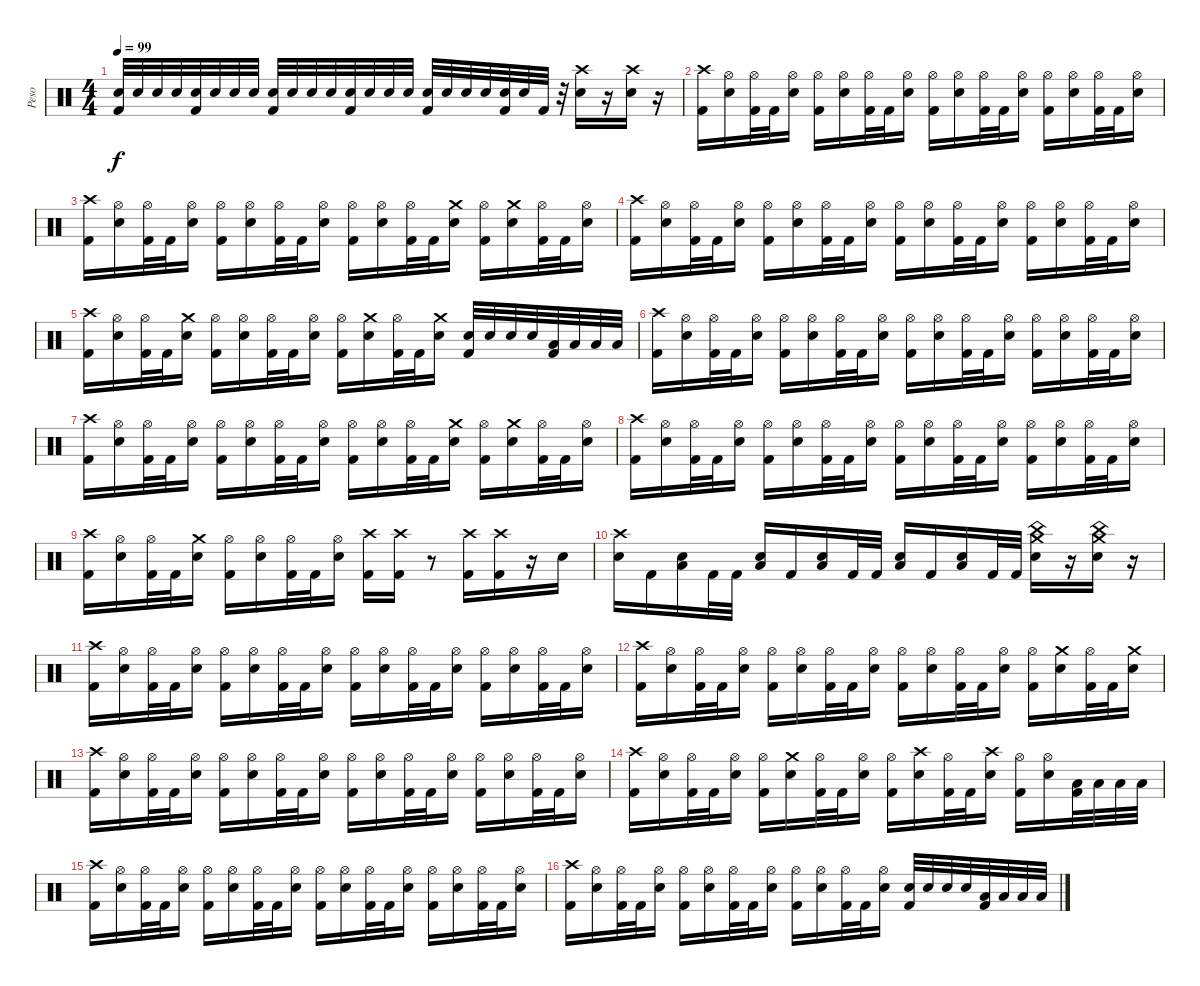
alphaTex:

\track ("Peso" "Peso") {instrument percussion}
\staff {score}
\articulation defaults
\ts (4 4)
\tempo 99
\clef neutral
\ks c
("Electric Snare (hit)" "Kick (hit) 2").32{dy f volume 10} "Electric Snare (hit)".32 "Electric Snare (hit)".32 "Electric Snare (hit)".32 ("Electric Snare (hit)" "Kick (hit) 2").32 "Electric Snare (hit)".32 "Electric Snare (hit)".32 "Electric Snare (hit)".32 ("Electric Snare (hit)" "Kick (hit) 2").32{volume 12} "Electric Snare (hit)".32 "Electric Snare (hit)".32 "Electric Snare (hit)".32 ("Electric Snare (hit)" "Kick (hit) 2").32 "Electric Snare (hit)".32 "Electric Snare (hit)".32 "Electric Snare (hit)".32 ("Electric Snare (hit)" "Kick (hit) 2").32{volume 14} "Electric Snare (hit)".32 "Electric Snare (hit)".32 "Electric Snare (hit)".32 ("Electric Snare (hit)" "Kick (hit) 2").32{volume 15} "Electric Snare (hit)".32 "Kick (hit) 2".32 r.32 ("Crash high (hit)" "Electric Snare (hit)").16 r.16 ("Crash high (hit)" "Electric Snare (hit)").16 r.16 |
("Crash high (hit)" "Kick (hit) 2").16 ("Hi-Hat (open)" "Electric Snare (hit)").16 ("Hi-Hat (open)" "Kick (hit) 2").32 "Kick (hit) 2".32 ("Hi-Hat (open)" "Electric Snare (hit)").16 ("Hi-Hat (open)" "Kick (hit) 2").16 ("Hi-Hat (open)" "Electric Snare (hit)").16 ("Hi-Hat (open)" "Kick (hit) 2").32 "Kick (hit) 2".32 ("Hi-Hat (open)" "Electric Snare (hit)").16 ("Hi-Hat (open)" "Kick (hit) 2").16 ("Hi-Hat (open)" "Electric Snare (hit)").16 ("Hi-Hat (open)" "Kick (hit) 2").32 "Kick (hit) 2".32 ("Hi-Hat (open)" "Electric Snare (hit)").16 ("Hi-Hat (open)" "Kick (hit) 2").16 ("Hi-Hat (open)" "Electric Snare (hit)").16 ("Hi-Hat (open)" "Kick (hit) 2").32 "Kick (hit) 2".32 ("Hi-Hat (open)" "Electric Snare (hit)").16 |
("Crash high (hit)" "Kick (hit) 2").16 ("Hi-Hat (open)" "Electric Snare (hit)").16 ("Hi-Hat (open)" "Kick (hit) 2").32 "Kick (hit) 2".32 ("Hi-Hat (open)" "Electric Snare (hit)").16 ("Hi-Hat (open)" "Kick (hit) 2").16 ("Hi-Hat (open)" "Electric Snare (hit)").16 ("Hi-Hat (open)" "Kick (hit) 2").32 "Kick (hit) 2".32 ("Hi-Hat (open)" "Electric Snare (hit)").16 ("Hi-Hat (open)" "Kick (hit) 2").16 ("Hi-Hat (open)" "Electric Snare (hit)").16 ("Hi-Hat (open)" "Kick (hit) 2").32 "Kick (hit) 2".32 ("Crash medium (hit)" "Electric Snare (hit)").16 ("Hi-Hat (open)" "Kick (hit) 2").16 ("Crash medium (hit)" "Electric Snare (hit)").16 ("Hi-Hat (open)" "Kick (hit) 2").32 "Kick (hit) 2".32 ("Hi-Hat (open)" "Electric Snare (hit)").16 |
("Crash high (hit)" "Kick (hit) 2").16 ("Hi-Hat (open)" "Electric Snare (hit)").16 ("Hi-Hat (open)" "Kick (hit) 2").32 "Kick (hit) 2".32 ("Hi-Hat (open)" "Electric Snare (hit)").16 ("Hi-Hat (open)" "Kick (hit) 2").16 ("Hi-Hat (open)" "Electric Snare (hit)").16 ("Hi-Hat (open)" "Kick (hit) 2").32 "Kick (hit) 2".32 ("Hi-Hat (open)" "Electric Snare (hit)").16 ("Hi-Hat (open)" "Kick (hit) 2").16 ("Hi-Hat (open)" "Electric Snare (hit)").16 ("Hi-Hat (open)" "Kick (hit) 2").32 "Kick (hit) 2".32 ("Hi-Hat (open)" "Electric Snare (hit)").16 ("Hi-Hat (open)" "Kick (hit) 2").16 ("Hi-Hat (open)" "Electric Snare (hit)").16 ("Hi-Hat (open)" "Kick (hit) 2").32 "Kick (hit) 2".32 ("Hi-Hat (open)" "Electric Snare (hit)").16 |
("Crash high (hit)" "Kick (hit) 2").16 ("Hi-Hat (open)" "Electric Snare (hit)").16 ("Hi-Hat (open)" "Kick (hit) 2").32 "Kick (hit) 2".32 ("Crash medium (hit)" "Electric Snare (hit)").16 ("Hi-Hat (open)" "Kick (hit) 2").16 ("Hi-Hat (open)" "Electric Snare (hit)").16 ("Hi-Hat (open)" "Kick (hit) 2").32 "Kick (hit) 2".32 ("Hi-Hat (open)" "Electric Snare (hit)").16 ("Hi-Hat (open)" "Kick (hit) 2").16 ("Crash medium (hit)" "Electric Snare (hit)").16 ("Hi-Hat (open)" "Kick (hit) 2").32 "Kick (hit) 2".32 ("Crash medium (hit)" "Electric Snare (hit)").16 ("Electric Snare (hit)" "Kick (hit) 2").32 "Electric Snare (hit)".32 "Electric Snare (hit)".32 "Electric Snare (hit)".32 ("Low Tom (hit)" "Kick (hit) 2").32 "Low Tom (hit)".32 "Low Tom (hit)".32 "Low Tom (hit)".32 |
("Crash high (hit)" "Kick (hit) 2").16 ("Hi-Hat (open)" "Electric Snare (hit)").16 ("Hi-Hat (open)" "Kick (hit) 2").32 "Kick (hit) 2".32 ("Hi-Hat (open)" "Electric Snare (hit)").16 ("Hi-Hat (open)" "Kick (hit) 2").16 ("Hi-Hat (open)" "Electric Snare (hit)").16 ("Hi-Hat (open)" "Kick (hit) 2").32 "Kick (hit) 2".32 ("Hi-Hat (open)" "Electric Snare (hit)").16 ("Hi-Hat (open)" "Kick (hit) 2").16 ("Hi-Hat (open)" "Electric Snare (hit)").16 ("Hi-Hat (open)" "Kick (hit) 2").32 "Kick (hit) 2".32 ("Hi-Hat (open)" "Electric Snare (hit)").16 ("Hi-Hat (open)" "Kick (hit) 2").16 ("Hi-Hat (open)" "Electric Snare (hit)").16 ("Hi-Hat (open)" "Kick (hit) 2").32 "Kick (hit) 2".32 ("Hi-Hat (open)" "Electric Snare (hit)").16 |
("Crash high (hit)" "Kick (hit) 2").16 ("Hi-Hat (open)" "Electric Snare (hit)").16 ("Hi-Hat (open)" "Kick (hit) 2").32 "Kick (hit) 2".32 ("Hi-Hat (open)" "Electric Snare (hit)").16 ("Hi-Hat (open)" "Kick (hit) 2").16 ("Hi-Hat (open)" "Electric Snare (hit)").16 ("Hi-Hat (open)" "Kick (hit) 2").32 "Kick (hit) 2".32 ("Hi-Hat (open)" "Electric Snare (hit)").16 ("Hi-Hat (open)" "Kick (hit) 2").16 ("Hi-Hat (open)" "Electric Snare (hit)").16 ("Hi-Hat (open)" "Kick (hit) 2").32 "Kick (hit) 2".32 ("Crash medium (hit)" "Electric Snare (hit)").16 ("Hi-Hat (open)" "Kick (hit) 2").16 ("Crash medium (hit)" "Electric Snare (hit)").16 ("Hi-Hat (open)" "Kick (hit) 2").32 "Kick (hit) 2".32 ("Hi-Hat (open)" "Electric Snare (hit)").16 |
("Crash high (hit)" "Kick (hit) 2").16 ("Hi-Hat (open)" "Electric Snare (hit)").16 ("Hi-Hat (open)" "Kick (hit) 2").32 "Kick (hit) 2".32 ("Hi-Hat (open)" "Electric Snare (hit)").16 ("Hi-Hat (open)" "Kick (hit) 2").16 ("Hi-Hat (open)" "Electric Snare (hit)").16 ("Hi-Hat (open)" "Kick (hit) 2").32 "Kick (hit) 2".32 ("Hi-Hat (open)" "Electric Snare (hit)").16 ("Hi-Hat (open)" "Kick (hit) 2").16 ("Hi-Hat (open)" "Electric Snare (hit)").16 ("Hi-Hat (open)" "Kick (hit) 2").32 "Kick (hit) 2".32 ("Hi-Hat (open)" "Electric Snare (hit)").16 ("Hi-Hat (open)" "Kick (hit) 2").16 ("Hi-Hat (open)" "Electric Snare (hit)").16 ("Hi-Hat (open)" "Kick (hit) 2").32 "Kick (hit) 2".32 ("Hi-Hat (open)" "Electric Snare (hit)").16 |
("Crash high (hit)" "Kick (hit) 2").16 ("Hi-Hat (open)" "Electric Snare (hit)").16 ("Hi-Hat (open)" "Kick (hit) 2").32 "Kick (hit) 2".32 ("Crash medium (hit)" "Electric Snare (hit)").16 ("Hi-Hat (open)" "Kick (hit) 2").16 ("Hi-Hat (open)" "Electric Snare (hit)").16 ("Hi-Hat (open)" "Kick (hit) 2").32 "Kick (hit) 2".32 ("Hi-Hat (open)" "Electric Snare (hit)").16 ("Crash high (hit)" "Kick (hit) 2").16 ("Crash high (hit)" "Kick (hit) 2").16 r.8 ("Crash high (hit)" "Kick (hit) 2").16 ("Crash high (hit)" "Kick (hit) 2").16 r.16 "Electric Snare (hit)".16 |
("Crash high (hit)" "Electric Snare (hit)").16 "Kick (hit) 2".16 ("Low Floor Tom (hit)" "Electric Snare (hit)").16 "Kick (hit) 2".32 "Kick (hit) 2".32 ("Low Floor Tom (hit)" "Electric Snare (hit)").16 "Kick (hit) 2".16 ("Low Floor Tom (hit)" "Electric Snare (hit)").16 "Kick (hit) 2".32 "Kick (hit) 2".32 ("Low Floor Tom (hit)" "Electric Snare (hit)").16 "Kick (hit) 2".16 ("Low Floor Tom (hit)" "Electric Snare (hit)").16 "Kick (hit) 2".32 "Kick (hit) 2".32 ("Crash medium (hit)" "China (hit)" "Electric Snare (hit)").16 r.16 ("Crash medium (hit)" "China (hit)" "Electric Snare (hit)").16 r.16 |
("Crash high (hit)" "Kick (hit) 2").16 ("Hi-Hat (open)" "Electric Snare (hit)").16 ("Hi-Hat (open)" "Kick (hit) 2").32 "Kick (hit) 2".32 ("Hi-Hat (open)" "Electric Snare (hit)").16 ("Hi-Hat (open)" "Kick (hit) 2").16 ("Hi-Hat (open)" "Electric Snare (hit)").16 ("Hi-Hat (open)" "Kick (hit) 2").32 "Kick (hit) 2".32 ("Hi-Hat (open)" "Electric Snare (hit)").16 ("Hi-Hat (open)" "Kick (hit) 2").16 ("Hi-Hat (open)" "Electric Snare (hit)").16 ("Hi-Hat (open)" "Kick (hit) 2").32 "Kick (hit) 2".32 ("Hi-Hat (open)" "Electric Snare (hit)").16 ("Hi-Hat (open)" "Kick (hit) 2").16 ("Hi-Hat (open)" "Electric Snare (hit)").16 ("Hi-Hat (open)" "Kick (hit) 2").32 "Kick (hit) 2".32 ("Hi-Hat (open)" "Electric Snare (hit)").16 |
("Crash high (hit)" "Kick (hit) 2").16 ("Hi-Hat (open)" "Electric Snare (hit)").16 ("Hi-Hat (open)" "Kick (hit) 2").32 "Kick (hit) 2".32 ("Hi-Hat (open)" "Electric Snare (hit)").16 ("Hi-Hat (open)" "Kick (hit) 2").16 ("Hi-Hat (open)" "Electric Snare (hit)").16 ("Hi-Hat (open)" "Kick (hit) 2").32 "Kick (hit) 2".32 ("Hi-Hat (open)" "Electric Snare (hit)").16 ("Hi-Hat (open)" "Kick (hit) 2").16 ("Hi-Hat (open)" "Electric Snare (hit)").16 ("Hi-Hat (open)" "Kick (hit) 2").32 "Kick (hit) 2".32 ("Hi-Hat (open)" "Electric Snare (hit)").16 ("Hi-Hat (open)" "Kick (hit) 2").16 ("Crash medium (hit)" "Electric Snare (hit)").16 ("Hi-Hat (open)" "Kick (hit) 2").32 "Kick (hit) 2".32 ("Crash medium (hit)" "Electric Snare (hit)").16 |
("Crash high (hit)" "Kick (hit) 2").16 ("Hi-Hat (open)" "Electric Snare (hit)").16 ("Hi-Hat (open)" "Kick (hit) 2").32 "Kick (hit) 2".32 ("Hi-Hat (open)" "Electric Snare (hit)").16 ("Hi-Hat (open)" "Kick (hit) 2").16 ("Hi-Hat (open)" "Electric Snare (hit)").16 ("Hi-Hat (open)" "Kick (hit) 2").32 "Kick (hit) 2".32 ("Hi-Hat (open)" "Electric Snare (hit)").16 ("Hi-Hat (open)" "Kick (hit) 2").16 ("Hi-Hat (open)" "Electric Snare (hit)").16 ("Hi-Hat (open)" "Kick (hit) 2").32 "Kick (hit) 2".32 ("Hi-Hat (open)" "Electric Snare (hit)").16 ("Hi-Hat (open)" "Kick (hit) 2").16 ("Hi-Hat (open)" "Electric Snare (hit)").16 ("Hi-Hat (open)" "Kick (hit) 2").32 "Kick (hit) 2".32 ("Hi-Hat (open)" "Electric Snare (hit)").16 |
("Crash high (hit)" "Kick (hit) 2").16 ("Hi-Hat (open)" "Electric Snare (hit)").16 ("Hi-Hat (open)" "Kick (hit) 2").32 "Kick (hit) 2".32 ("Hi-Hat (open)" "Electric Snare (hit)").16 ("Hi-Hat (open)" "Kick (hit) 2").16 ("Crash medium (hit)" "Electric Snare (hit)").16 ("Hi-Hat (open)" "Kick (hit) 2").32 "Kick (hit) 2".32 ("Hi-Hat (open)" "Electric Snare (hit)").16 ("Hi-Hat (open)" "Kick (hit) 2").16 ("Crash high (hit)" "Electric Snare (hit)").16 ("Hi-Hat (open)" "Kick (hit) 2").32 "Kick (hit) 2".32 ("Crash high (hit)" "Electric Snare (hit)").16 ("Hi-Hat (open)" "Kick (hit) 2").16 ("Hi-Hat (open)" "Electric Snare (hit)").16 ("Low Tom (hit)" "Kick (hit) 2").32 "Low Tom (hit)".32 "Low Tom (hit)".32 "Low Tom (hit)".32 |
("Crash high (hit)" "Kick (hit) 2").16 ("Hi-Hat (open)" "Electric Snare (hit)").16 ("Hi-Hat (open)" "Kick (hit) 2").32 "Kick (hit) 2".32 ("Hi-Hat (open)" "Electric Snare (hit)").16 ("Hi-Hat (open)" "Kick (hit) 2").16 ("Hi-Hat (open)" "Electric Snare (hit)").16 ("Hi-Hat (open)" "Kick (hit) 2").32 "Kick (hit) 2".32 ("Hi-Hat (open)" "Electric Snare (hit)").16 ("Hi-Hat (open)" "Kick (hit) 2").16 ("Hi-Hat (open)" "Electric Snare (hit)").16 ("Hi-Hat (open)" "Kick (hit) 2").32 "Kick (hit) 2".32 ("Hi-Hat (open)" "Electric Snare (hit)").16 ("Hi-Hat (open)" "Kick (hit) 2").16 ("Hi-Hat (open)" "Electric Snare (hit)").16 ("Hi-Hat (open)" "Kick (hit) 2").32 "Kick (hit) 2".32 ("Hi-Hat (open)" "Electric Snare (hit)").16 |
("Crash high (hit)" "Kick (hit) 2").16 ("Hi-Hat (open)" "Electric Snare (hit)").16 ("Hi-Hat (open)" "Kick (hit) 2").32 "Kick (hit) 2".32 ("Hi-Hat (open)" "Electric Snare (hit)").16 ("Hi-Hat (open)" "Kick (hit) 2").16 ("Hi-Hat (open)" "Electric Snare (hit)").16 ("Hi-Hat (open)" "Kick (hit) 2").32 "Kick (hit) 2".32 ("Hi-Hat (open)" "Electric Snare (hit)").16 ("Hi-Hat (open)" "Kick (hit) 2").16 ("Hi-Hat (open)" "Electric Snare (hit)").16 ("Hi-Hat (open)" "Kick (hit) 2").32 "Kick (hit) 2".32 ("Hi-Hat (open)" "Electric Snare (hit)").16 ("Electric Snare (hit)" "Kick (hit) 2").32 "Electric Snare (hit)".32 "Electric Snare (hit)".32 "Electric Snare (hit)".32 ("Low Tom (hit)" "Kick (hit) 2").32 "Low Tom (hit)".32 "Low Tom (hit)".32 "Low Tom (hit)".32
